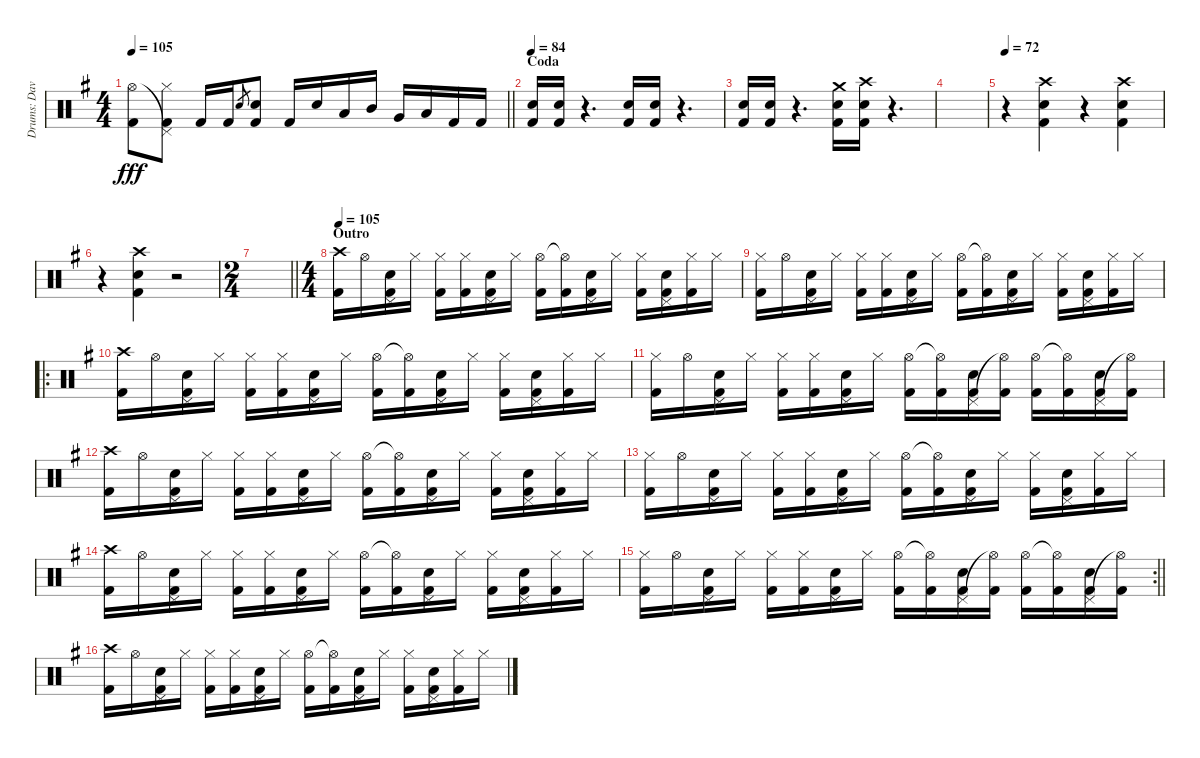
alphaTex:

\track ("Drums: Dave" "Drums: Dav") {instrument percussion}
\staff {score}
\articulation defaults
\ts (4 4)
\tempo 105
\clef neutral
\barLineRight lightlight
\ks g
("Hi-Hat (open)" "Kick (hit) 2").8{dy fff} ("Pedal Hi-Hat (hit)"{t} "Hi-Hat (closed)" "Kick (hit) 2").8 "Kick (hit) 2".16 "Kick (hit) 2".16 "Snare (hit) 2".8{gr} ("Electric Snare (hit)" "Kick (hit) 2").8 "Kick (hit) 2".16 "Electric Snare (hit)".16 "Low Tom (hit)".16 "Mid Tom (hit)".16 "Very Low Tom (hit)".16 "Low Floor Tom (hit)".16 "Kick (hit) 2".16 "Kick (hit) 2".16 |
\section ("" "Coda")
\tempo 84
("Electric Snare (hit)" "Kick (hit) 2").16 ("Electric Snare (hit)" "Kick (hit) 2").16 r.4{d} ("Electric Snare (hit)" "Kick (hit) 2").16 ("Electric Snare (hit)" "Kick (hit) 2").16 r.4{d} |
("Electric Snare (hit)" "Kick (hit) 2").16 ("Electric Snare (hit)" "Kick (hit) 2").16 r.4{d} ("Crash medium (hit)" "Electric Snare (hit)" "Kick (hit) 2").16 ("Crash high (hit)" "Electric Snare (hit)" "Kick (hit) 2").16 r.4{d} |
|
\tempo 72
r.4 ("Crash high (hit)" "Electric Snare (hit)" "Kick (hit) 2").4 r.4 ("Crash high (hit)" "Electric Snare (hit)" "Kick (hit) 2").4 |
r.4 ("Crash high (hit)" "Electric Snare (hit)" "Kick (hit) 2").4 r.2 |
\ts (2 4)
\barLineRight lightlight
|
\ts (4 4)
\section ("" "Outro")
\tempo 105
("Crash high (hit)" "Kick (hit) 2").16 "Hi-Hat (open)".16 ("Pedal Hi-Hat (hit)" "Snare (hit) 2" "Kick (hit) 2").16 "Hi-Hat (closed)".16 ("Hi-Hat (closed)" "Kick (hit) 2").16 ("Hi-Hat (closed)" "Kick (hit) 2").16 ("Pedal Hi-Hat (hit)" "Snare (hit) 2" "Kick (hit) 2").16 "Hi-Hat (closed)".16 ("Hi-Hat (open)" "Kick (hit) 2").16 ("Hi-Hat (open)"{t} "Kick (hit) 2").16 ("Pedal Hi-Hat (hit)" "Snare (hit) 2" "Kick (hit) 2").16 "Hi-Hat (closed)".16 ("Hi-Hat (closed)" "Kick (hit) 2").16 ("Pedal Hi-Hat (hit)" "Snare (hit) 2" "Kick (hit) 2").16 ("Hi-Hat (closed)" "Kick (hit) 2").16 "Hi-Hat (closed)".16 |
("Hi-Hat (closed)" "Kick (hit) 2").16 "Hi-Hat (open)".16 ("Pedal Hi-Hat (hit)" "Snare (hit) 2" "Kick (hit) 2").16 "Hi-Hat (closed)".16 ("Hi-Hat (closed)" "Kick (hit) 2").16 ("Hi-Hat (closed)" "Kick (hit) 2").16 ("Pedal Hi-Hat (hit)" "Snare (hit) 2" "Kick (hit) 2").16 "Hi-Hat (closed)".16 ("Hi-Hat (open)" "Kick (hit) 2").16 ("Hi-Hat (open)"{t} "Kick (hit) 2").16 ("Pedal Hi-Hat (hit)" "Snare (hit) 2" "Kick (hit) 2").16 "Hi-Hat (closed)".16 ("Hi-Hat (closed)" "Kick (hit) 2").16 ("Pedal Hi-Hat (hit)" "Snare (hit) 2" "Kick (hit) 2").16 ("Hi-Hat (closed)" "Kick (hit) 2").16 "Hi-Hat (closed)".16 |
\ro
("Crash high (hit)" "Kick (hit) 2").16 "Hi-Hat (open)".16 ("Pedal Hi-Hat (hit)" "Snare (hit) 2" "Kick (hit) 2").16 "Hi-Hat (closed)".16 ("Hi-Hat (closed)" "Kick (hit) 2").16 ("Hi-Hat (closed)" "Kick (hit) 2").16 ("Pedal Hi-Hat (hit)" "Snare (hit) 2" "Kick (hit) 2").16 "Hi-Hat (closed)".16 ("Hi-Hat (open)" "Kick (hit) 2").16 ("Hi-Hat (open)"{t} "Kick (hit) 2").16 ("Pedal Hi-Hat (hit)" "Snare (hit) 2" "Kick (hit) 2").16 "Hi-Hat (closed)".16 ("Hi-Hat (closed)" "Kick (hit) 2").16 ("Pedal Hi-Hat (hit)" "Snare (hit) 2" "Kick (hit) 2").16 ("Hi-Hat (closed)" "Kick (hit) 2").16 "Hi-Hat (closed)".16 |
("Hi-Hat (closed)" "Kick (hit) 2").16 "Hi-Hat (open)".16 ("Pedal Hi-Hat (hit)" "Snare (hit) 2" "Kick (hit) 2").16 "Hi-Hat (closed)".16 ("Hi-Hat (closed)" "Kick (hit) 2").16 ("Hi-Hat (closed)" "Kick (hit) 2").16 ("Pedal Hi-Hat (hit)" "Snare (hit) 2" "Kick (hit) 2").16 "Hi-Hat (closed)".16 ("Hi-Hat (open)" "Kick (hit) 2").16 ("Hi-Hat (open)"{t} "Kick (hit) 2").16 ("Pedal Hi-Hat (hit)" "Snare (hit) 2" "Kick (hit) 2").16 ("Hi-Hat (open)"{t} "Kick (hit) 2").16 ("Hi-Hat (open)" "Kick (hit) 2").16 ("Hi-Hat (open)"{t} "Kick (hit) 2").16 ("Pedal Hi-Hat (hit)" "Snare (hit) 2" "Kick (hit) 2").16 ("Hi-Hat (open)"{t} "Kick (hit) 2").16 |
("Crash high (hit)" "Kick (hit) 2").16 "Hi-Hat (open)".16 ("Pedal Hi-Hat (hit)" "Snare (hit) 2" "Kick (hit) 2").16 "Hi-Hat (closed)".16 ("Hi-Hat (closed)" "Kick (hit) 2").16 ("Hi-Hat (closed)" "Kick (hit) 2").16 ("Pedal Hi-Hat (hit)" "Snare (hit) 2" "Kick (hit) 2").16 "Hi-Hat (closed)".16 ("Hi-Hat (open)" "Kick (hit) 2").16 ("Hi-Hat (open)"{t} "Kick (hit) 2").16 ("Pedal Hi-Hat (hit)" "Snare (hit) 2" "Kick (hit) 2").16 "Hi-Hat (closed)".16 ("Hi-Hat (closed)" "Kick (hit) 2").16 ("Pedal Hi-Hat (hit)" "Snare (hit) 2" "Kick (hit) 2").16 ("Hi-Hat (closed)" "Kick (hit) 2").16 "Hi-Hat (closed)".16 |
("Hi-Hat (closed)" "Kick (hit) 2").16 "Hi-Hat (open)".16 ("Pedal Hi-Hat (hit)" "Snare (hit) 2" "Kick (hit) 2").16 "Hi-Hat (closed)".16 ("Hi-Hat (closed)" "Kick (hit) 2").16 ("Hi-Hat (closed)" "Kick (hit) 2").16 ("Pedal Hi-Hat (hit)" "Snare (hit) 2" "Kick (hit) 2").16 "Hi-Hat (closed)".16 ("Hi-Hat (open)" "Kick (hit) 2").16 ("Hi-Hat (open)"{t} "Kick (hit) 2").16 ("Pedal Hi-Hat (hit)" "Snare (hit) 2" "Kick (hit) 2").16 "Hi-Hat (closed)".16 ("Hi-Hat (closed)" "Kick (hit) 2").16 ("Pedal Hi-Hat (hit)" "Snare (hit) 2" "Kick (hit) 2").16 ("Hi-Hat (closed)" "Kick (hit) 2").16 "Hi-Hat (closed)".16 |
("Crash high (hit)" "Kick (hit) 2").16 "Hi-Hat (open)".16 ("Pedal Hi-Hat (hit)" "Snare (hit) 2" "Kick (hit) 2").16 "Hi-Hat (closed)".16 ("Hi-Hat (closed)" "Kick (hit) 2").16 ("Hi-Hat (closed)" "Kick (hit) 2").16 ("Pedal Hi-Hat (hit)" "Snare (hit) 2" "Kick (hit) 2").16 "Hi-Hat (closed)".16 ("Hi-Hat (open)" "Kick (hit) 2").16 ("Hi-Hat (open)"{t} "Kick (hit) 2").16 ("Pedal Hi-Hat (hit)" "Snare (hit) 2" "Kick (hit) 2").16 "Hi-Hat (closed)".16 ("Hi-Hat (closed)" "Kick (hit) 2").16 ("Pedal Hi-Hat (hit)" "Snare (hit) 2" "Kick (hit) 2").16 ("Hi-Hat (closed)" "Kick (hit) 2").16 "Hi-Hat (closed)".16 |
\rc 2
\barLineRight lightlight
("Hi-Hat (closed)" "Kick (hit) 2").16 "Hi-Hat (open)".16 ("Pedal Hi-Hat (hit)" "Snare (hit) 2" "Kick (hit) 2").16 "Hi-Hat (closed)".16 ("Hi-Hat (closed)" "Kick (hit) 2").16 ("Hi-Hat (closed)" "Kick (hit) 2").16 ("Pedal Hi-Hat (hit)" "Snare (hit) 2" "Kick (hit) 2").16 "Hi-Hat (closed)".16 ("Hi-Hat (open)" "Kick (hit) 2").16 ("Hi-Hat (open)"{t} "Kick (hit) 2").16 ("Pedal Hi-Hat (hit)" "Snare (hit) 2" "Kick (hit) 2").16 ("Hi-Hat (open)"{t} "Kick (hit) 2").16 ("Hi-Hat (open)" "Kick (hit) 2").16 ("Hi-Hat (open)"{t} "Kick (hit) 2").16 ("Pedal Hi-Hat (hit)" "Snare (hit) 2" "Kick (hit) 2").16 ("Hi-Hat (open)"{t} "Kick (hit) 2").16 |
("Crash high (hit)" "Kick (hit) 2").16 "Hi-Hat (open)".16 ("Pedal Hi-Hat (hit)" "Snare (hit) 2" "Kick (hit) 2").16 "Hi-Hat (closed)".16 ("Hi-Hat (closed)" "Kick (hit) 2").16 ("Hi-Hat (closed)" "Kick (hit) 2").16 ("Pedal Hi-Hat (hit)" "Snare (hit) 2" "Kick (hit) 2").16 "Hi-Hat (closed)".16 ("Hi-Hat (open)" "Kick (hit) 2").16 ("Hi-Hat (open)"{t} "Kick (hit) 2").16 ("Pedal Hi-Hat (hit)" "Snare (hit) 2" "Kick (hit) 2").16 "Hi-Hat (closed)".16 ("Hi-Hat (closed)" "Kick (hit) 2").16 ("Pedal Hi-Hat (hit)" "Snare (hit) 2" "Kick (hit) 2").16 ("Hi-Hat (closed)" "Kick (hit) 2").16 "Hi-Hat (closed)".16
